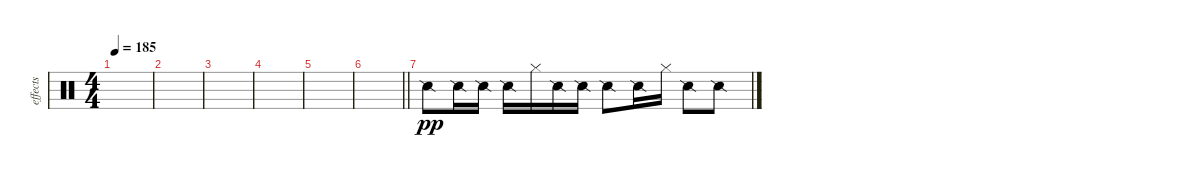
\track ("effects" "effects") {instrument percussion}
\staff {score}
\articulation defaults
\ts (4 4)
\tempo 185
\clef neutral
\ks c
|
|
|
|
|
\barLineRight lightlight
|
\section ("" "")
"Snare (side stick) 2".8{dy pp balance 13} "Snare (side stick) 2".16 "Snare (side stick) 2".16 "Snare (side stick) 2".16 "Hi-Hat (closed)".16 "Snare (side stick) 2".16 "Snare (side stick) 2".16 "Snare (side stick) 2".8 "Snare (side stick) 2".16 "Hi-Hat (closed)".16 "Snare (side stick) 2".8 "Snare (side stick) 2".8
